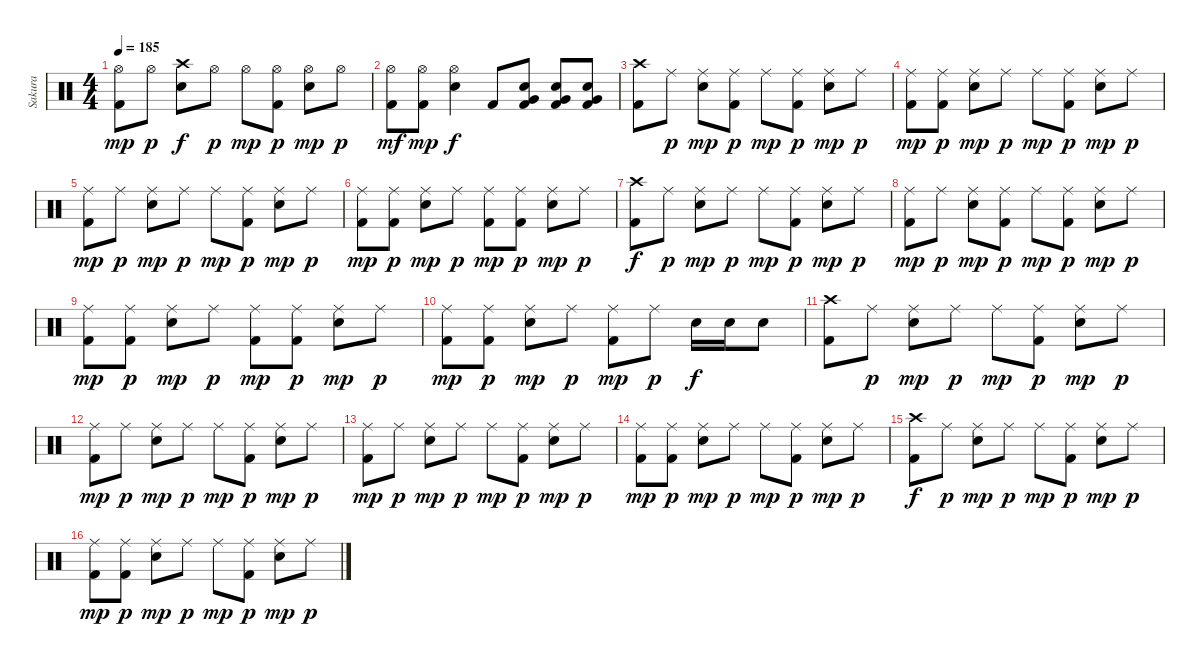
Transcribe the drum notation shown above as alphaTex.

\track ("Sakura" "Sakura") {instrument percussion}
\staff {score}
\articulation defaults
\ts (4 4)
\tempo 185
\clef neutral
\ks c
("Hi-Hat (open)" "Kick (hit) 2").8{dy mp} "Hi-Hat (open)".8{dy p} ("Crash high (hit)" "Electric Snare (hit)").8{dy f} "Hi-Hat (open)".8{dy p} "Hi-Hat (open)".8{dy mp} ("Hi-Hat (open)" "Kick (hit) 2").8{dy p} ("Hi-Hat (open)" "Electric Snare (hit)").8{dy mp} "Hi-Hat (open)".8{dy p} |
("Hi-Hat (open)" "Kick (hit) 2").8{dy mf} ("Hi-Hat (open)" "Kick (hit) 2").8{dy mp} ("Hi-Hat (open)" "Electric Snare (hit)").4{dy f} "Kick (hit) 2".8 ("Electric Snare (hit)" "Very Low Tom (hit)" "Kick (hit) 2").8 ("Electric Snare (hit)" "Very Low Tom (hit)" "Kick (hit) 2").8 ("Electric Snare (hit)" "Very Low Tom (hit)" "Kick (hit) 2").8 |
("Crash high (hit)" "Kick (hit) 2").8 "Ride (middle)".8{dy p} ("Ride (middle)" "Electric Snare (hit)").8{dy mp} ("Ride (middle)" "Kick (hit) 2").8{dy p} "Ride (middle)".8{dy mp} ("Ride (middle)" "Kick (hit) 2").8{dy p} ("Ride (middle)" "Electric Snare (hit)").8{dy mp} "Ride (middle)".8{dy p} |
("Ride (middle)" "Kick (hit) 2").8{dy mp} ("Ride (middle)" "Kick (hit) 2").8{dy p} ("Ride (middle)" "Electric Snare (hit)").8{dy mp} "Ride (middle)".8{dy p} "Ride (middle)".8{dy mp} ("Ride (middle)" "Kick (hit) 2").8{dy p} ("Ride (middle)" "Electric Snare (hit)").8{dy mp} "Ride (middle)".8{dy p} |
("Ride (middle)" "Kick (hit) 2").8{dy mp} "Ride (middle)".8{dy p} ("Ride (middle)" "Electric Snare (hit)").8{dy mp} "Ride (middle)".8{dy p} "Ride (middle)".8{dy mp} ("Ride (middle)" "Kick (hit) 2").8{dy p} ("Ride (middle)" "Electric Snare (hit)").8{dy mp} "Ride (middle)".8{dy p} |
("Ride (middle)" "Kick (hit) 2").8{dy mp} ("Ride (middle)" "Kick (hit) 2").8{dy p} ("Ride (middle)" "Electric Snare (hit)").8{dy mp} "Ride (middle)".8{dy p} ("Ride (middle)" "Kick (hit) 2").8{dy mp} ("Ride (middle)" "Kick (hit) 2").8{dy p} ("Ride (middle)" "Electric Snare (hit)").8{dy mp} "Ride (middle)".8{dy p} |
("Crash high (hit)" "Kick (hit) 2").8{dy f} "Ride (middle)".8{dy p} ("Ride (middle)" "Electric Snare (hit)").8{dy mp} "Ride (middle)".8{dy p} "Ride (middle)".8{dy mp} ("Ride (middle)" "Kick (hit) 2").8{dy p} ("Ride (middle)" "Electric Snare (hit)").8{dy mp} "Ride (middle)".8{dy p} |
("Ride (middle)" "Kick (hit) 2").8{dy mp} "Ride (middle)".8{dy p} ("Ride (middle)" "Electric Snare (hit)").8{dy mp} ("Ride (middle)" "Kick (hit) 2").8{dy p} "Ride (middle)".8{dy mp} ("Ride (middle)" "Kick (hit) 2").8{dy p} ("Ride (middle)" "Electric Snare (hit)").8{dy mp} "Ride (middle)".8{dy p} |
("Ride (middle)" "Kick (hit) 2").8{dy mp} ("Ride (middle)" "Kick (hit) 2").8{dy p} ("Ride (middle)" "Electric Snare (hit)").8{dy mp} "Ride (middle)".8{dy p} ("Ride (middle)" "Kick (hit) 2").8{dy mp} ("Ride (middle)" "Kick (hit) 2").8{dy p} ("Ride (middle)" "Electric Snare (hit)").8{dy mp} "Ride (middle)".8{dy p} |
("Ride (middle)" "Kick (hit) 2").8{dy mp} ("Ride (middle)" "Kick (hit) 2").8{dy p} ("Ride (middle)" "Electric Snare (hit)").8{dy mp} "Ride (middle)".8{dy p} ("Ride (middle)" "Kick (hit) 2").8{dy mp} "Ride (middle)".8{dy p} "Electric Snare (hit)".16{dy f} "Electric Snare (hit)".16 "Electric Snare (hit)".8 |
("Crash high (hit)" "Kick (hit) 2").8 "Ride (middle)".8{dy p} ("Ride (middle)" "Electric Snare (hit)").8{dy mp} "Ride (middle)".8{dy p} "Ride (middle)".8{dy mp} ("Ride (middle)" "Kick (hit) 2").8{dy p} ("Ride (middle)" "Electric Snare (hit)").8{dy mp} "Ride (middle)".8{dy p} |
("Ride (middle)" "Kick (hit) 2").8{dy mp} "Ride (middle)".8{dy p} ("Ride (middle)" "Electric Snare (hit)").8{dy mp} "Ride (middle)".8{dy p} "Ride (middle)".8{dy mp} ("Ride (middle)" "Kick (hit) 2").8{dy p} ("Ride (middle)" "Electric Snare (hit)").8{dy mp} "Ride (middle)".8{dy p} |
("Ride (middle)" "Kick (hit) 2").8{dy mp} "Ride (middle)".8{dy p} ("Ride (middle)" "Electric Snare (hit)").8{dy mp} "Ride (middle)".8{dy p} "Ride (middle)".8{dy mp} ("Ride (middle)" "Kick (hit) 2").8{dy p} ("Ride (middle)" "Electric Snare (hit)").8{dy mp} "Ride (middle)".8{dy p} |
("Ride (middle)" "Kick (hit) 2").8{dy mp} ("Ride (middle)" "Kick (hit) 2").8{dy p} ("Ride (middle)" "Electric Snare (hit)").8{dy mp} "Ride (middle)".8{dy p} "Ride (middle)".8{dy mp} ("Ride (middle)" "Kick (hit) 2").8{dy p} ("Ride (middle)" "Electric Snare (hit)").8{dy mp} "Ride (middle)".8{dy p} |
("Crash high (hit)" "Kick (hit) 2").8{dy f} "Ride (middle)".8{dy p} ("Ride (middle)" "Electric Snare (hit)").8{dy mp} "Ride (middle)".8{dy p} "Ride (middle)".8{dy mp} ("Ride (middle)" "Kick (hit) 2").8{dy p} ("Ride (middle)" "Electric Snare (hit)").8{dy mp} "Ride (middle)".8{dy p} |
("Ride (middle)" "Kick (hit) 2").8{dy mp} ("Ride (middle)" "Kick (hit) 2").8{dy p} ("Ride (middle)" "Electric Snare (hit)").8{dy mp} "Ride (middle)".8{dy p} "Ride (middle)".8{dy mp} ("Ride (middle)" "Kick (hit) 2").8{dy p} ("Ride (middle)" "Electric Snare (hit)").8{dy mp} "Ride (middle)".8{dy p}
